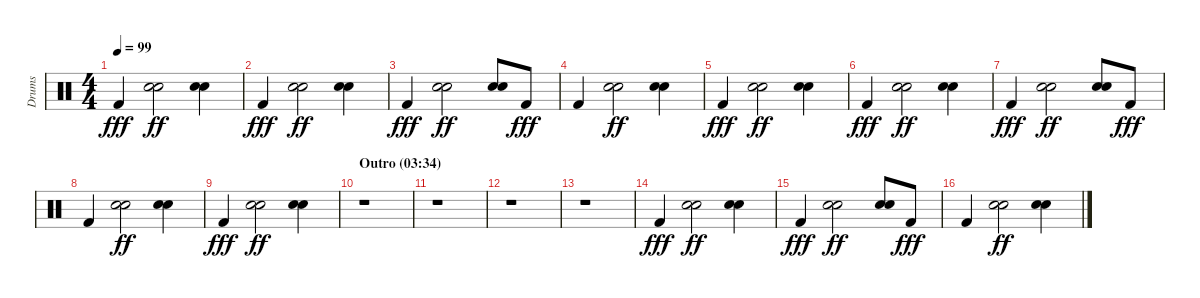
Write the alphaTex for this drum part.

\track ("Drums" "Drums") {instrument percussion}
\staff {score}
\articulation defaults
\ts (4 4)
\tempo 99
\clef neutral
\ks c "Kick (hit) 2".4{dy fff}
("Snare (hit) 2" "Hand Clap (hit)").2{dy ff} ("Snare (hit) 2" "Hand Clap (hit)").4 |
"Kick (hit) 2".4{dy fff} ("Snare (hit) 2" "Hand Clap (hit)").2{dy ff} ("Snare (hit) 2" "Hand Clap (hit)").4 |
"Kick (hit) 2".4{dy fff} ("Snare (hit) 2" "Hand Clap (hit)").2{dy ff} ("Snare (hit) 2" "Hand Clap (hit)").8 "Kick (hit) 2".8{dy fff} |
"Kick (hit) 2".4 ("Snare (hit) 2" "Hand Clap (hit)").2{dy ff} ("Snare (hit) 2" "Hand Clap (hit)").4 |
"Kick (hit) 2".4{dy fff} ("Snare (hit) 2" "Hand Clap (hit)").2{dy ff} ("Snare (hit) 2" "Hand Clap (hit)").4 |
"Kick (hit) 2".4{dy fff} ("Snare (hit) 2" "Hand Clap (hit)").2{dy ff} ("Snare (hit) 2" "Hand Clap (hit)").4 |
"Kick (hit) 2".4{dy fff} ("Snare (hit) 2" "Hand Clap (hit)").2{dy ff} ("Snare (hit) 2" "Hand Clap (hit)").8 "Kick (hit) 2".8{dy fff} |
"Kick (hit) 2".4 ("Snare (hit) 2" "Hand Clap (hit)").2{dy ff} ("Snare (hit) 2" "Hand Clap (hit)").4 |
"Kick (hit) 2".4{dy fff} ("Snare (hit) 2" "Hand Clap (hit)").2{dy ff} ("Snare (hit) 2" "Hand Clap (hit)").4 |
\section ("" "Outro (03:34)")
r.1 |
r.1 |
r.1 |
r.1 |
"Kick (hit) 2".4{dy fff} ("Snare (hit) 2" "Hand Clap (hit)").2{dy ff} ("Snare (hit) 2" "Hand Clap (hit)").4 |
"Kick (hit) 2".4{dy fff} ("Snare (hit) 2" "Hand Clap (hit)").2{dy ff} ("Snare (hit) 2" "Hand Clap (hit)").8 "Kick (hit) 2".8{dy fff} |
"Kick (hit) 2".4 ("Snare (hit) 2" "Hand Clap (hit)").2{dy ff} ("Snare (hit) 2" "Hand Clap (hit)").4
